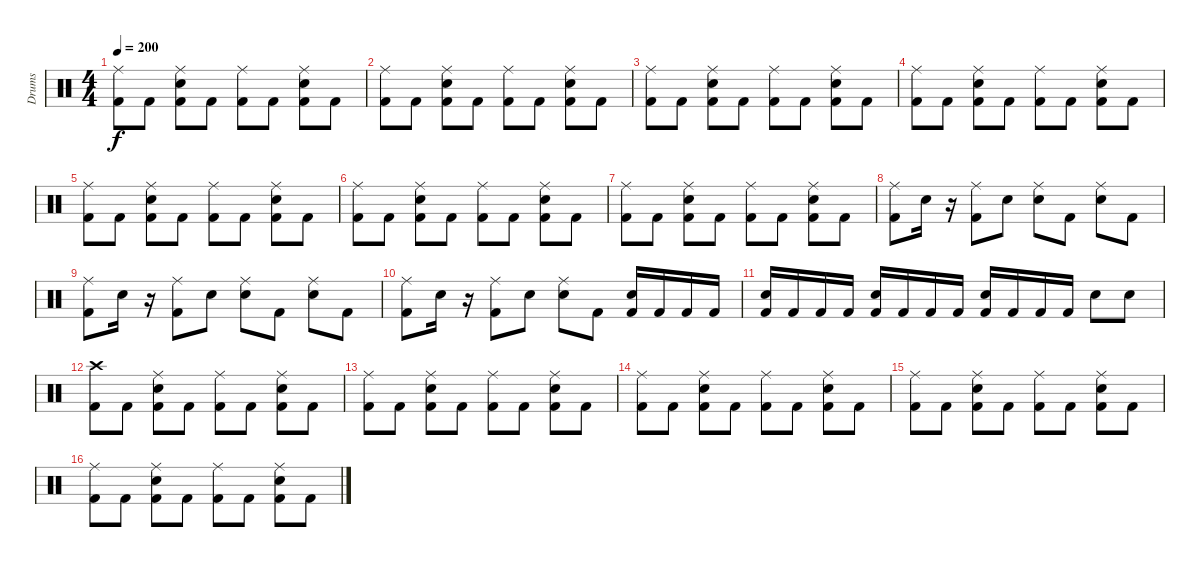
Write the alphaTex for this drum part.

\track ("Drums" "Drums") {instrument percussion}
\staff {score}
\articulation defaults
\ts (4 4)
\tempo 200
\clef neutral
\ks c
("Ride (middle)" "Kick (hit) 2").8{dy f} "Kick (hit) 2".8 ("Ride (middle)" "Snare (hit) 2" "Kick (hit) 2").8 "Kick (hit) 2".8 ("Ride (middle)" "Kick (hit) 2").8 "Kick (hit) 2".8 ("Ride (middle)" "Snare (hit) 2" "Kick (hit) 2").8 "Kick (hit) 2".8 |
("Ride (middle)" "Kick (hit) 2").8 "Kick (hit) 2".8 ("Ride (middle)" "Snare (hit) 2" "Kick (hit) 2").8 "Kick (hit) 2".8 ("Ride (middle)" "Kick (hit) 2").8 "Kick (hit) 2".8 ("Ride (middle)" "Snare (hit) 2" "Kick (hit) 2").8 "Kick (hit) 2".8 |
("Ride (middle)" "Kick (hit) 2").8 "Kick (hit) 2".8 ("Ride (middle)" "Snare (hit) 2" "Kick (hit) 2").8 "Kick (hit) 2".8 ("Ride (middle)" "Kick (hit) 2").8 "Kick (hit) 2".8 ("Ride (middle)" "Snare (hit) 2" "Kick (hit) 2").8 "Kick (hit) 2".8 |
("Ride (middle)" "Kick (hit) 2").8 "Kick (hit) 2".8 ("Ride (middle)" "Snare (hit) 2" "Kick (hit) 2").8 "Kick (hit) 2".8 ("Ride (middle)" "Kick (hit) 2").8 "Kick (hit) 2".8 ("Ride (middle)" "Snare (hit) 2" "Kick (hit) 2").8 "Kick (hit) 2".8 |
("Ride (middle)" "Kick (hit) 2").8 "Kick (hit) 2".8 ("Ride (middle)" "Snare (hit) 2" "Kick (hit) 2").8 "Kick (hit) 2".8 ("Ride (middle)" "Kick (hit) 2").8 "Kick (hit) 2".8 ("Ride (middle)" "Snare (hit) 2" "Kick (hit) 2").8 "Kick (hit) 2".8 |
("Ride (middle)" "Kick (hit) 2").8 "Kick (hit) 2".8 ("Ride (middle)" "Snare (hit) 2" "Kick (hit) 2").8 "Kick (hit) 2".8 ("Ride (middle)" "Kick (hit) 2").8 "Kick (hit) 2".8 ("Ride (middle)" "Snare (hit) 2" "Kick (hit) 2").8 "Kick (hit) 2".8 |
("Ride (middle)" "Kick (hit) 2").8 "Kick (hit) 2".8 ("Ride (middle)" "Snare (hit) 2" "Kick (hit) 2").8 "Kick (hit) 2".8 ("Ride (middle)" "Kick (hit) 2").8 "Kick (hit) 2".8 ("Ride (middle)" "Snare (hit) 2" "Kick (hit) 2").8 "Kick (hit) 2".8 |
("Ride (middle)" "Kick (hit) 2").8 "Snare (hit) 2".16 r.16 ("Ride (middle)" "Kick (hit) 2").8 "Snare (hit) 2".8 ("Ride (middle)" "Snare (hit) 2").8 "Kick (hit) 2".8 ("Ride (middle)" "Snare (hit) 2").8 "Kick (hit) 2".8 |
("Ride (middle)" "Kick (hit) 2").8 "Snare (hit) 2".16 r.16 ("Ride (middle)" "Kick (hit) 2").8 "Snare (hit) 2".8 ("Ride (middle)" "Snare (hit) 2").8 "Kick (hit) 2".8 ("Ride (middle)" "Snare (hit) 2").8 "Kick (hit) 2".8 |
("Ride (middle)" "Kick (hit) 2").8 "Snare (hit) 2".16 r.16 ("Ride (middle)" "Kick (hit) 2").8 "Snare (hit) 2".8 ("Ride (middle)" "Snare (hit) 2").8 "Kick (hit) 2".8 ("Snare (hit) 2" "Kick (hit) 2").16 "Kick (hit) 2".16 "Kick (hit) 2".16 "Kick (hit) 2".16 |
("Snare (hit) 2" "Kick (hit) 2").16 "Kick (hit) 2".16 "Kick (hit) 2".16 "Kick (hit) 2".16 ("Snare (hit) 2" "Kick (hit) 2").16 "Kick (hit) 2".16 "Kick (hit) 2".16 "Kick (hit) 2".16 ("Snare (hit) 2" "Kick (hit) 2").16 "Kick (hit) 2".16 "Kick (hit) 2".16 "Kick (hit) 2".16 "Snare (hit) 2".8 "Snare (hit) 2".8 |
("Crash high (hit)" "Kick (hit) 2").8 "Kick (hit) 2".8 ("Ride (middle)" "Snare (hit) 2" "Kick (hit) 2").8 "Kick (hit) 2".8 ("Ride (middle)" "Kick (hit) 2").8 "Kick (hit) 2".8 ("Ride (middle)" "Snare (hit) 2" "Kick (hit) 2").8 "Kick (hit) 2".8 |
("Ride (middle)" "Kick (hit) 2").8 "Kick (hit) 2".8 ("Ride (middle)" "Snare (hit) 2" "Kick (hit) 2").8 "Kick (hit) 2".8 ("Ride (middle)" "Kick (hit) 2").8 "Kick (hit) 2".8 ("Ride (middle)" "Snare (hit) 2" "Kick (hit) 2").8 "Kick (hit) 2".8 |
("Ride (middle)" "Kick (hit) 2").8 "Kick (hit) 2".8 ("Ride (middle)" "Snare (hit) 2" "Kick (hit) 2").8 "Kick (hit) 2".8 ("Ride (middle)" "Kick (hit) 2").8 "Kick (hit) 2".8 ("Ride (middle)" "Snare (hit) 2" "Kick (hit) 2").8 "Kick (hit) 2".8 |
("Ride (middle)" "Kick (hit) 2").8 "Kick (hit) 2".8 ("Ride (middle)" "Snare (hit) 2" "Kick (hit) 2").8 "Kick (hit) 2".8 ("Ride (middle)" "Kick (hit) 2").8 "Kick (hit) 2".8 ("Ride (middle)" "Snare (hit) 2" "Kick (hit) 2").8 "Kick (hit) 2".8 |
("Ride (middle)" "Kick (hit) 2").8 "Kick (hit) 2".8 ("Ride (middle)" "Snare (hit) 2" "Kick (hit) 2").8 "Kick (hit) 2".8 ("Ride (middle)" "Kick (hit) 2").8 "Kick (hit) 2".8 ("Ride (middle)" "Snare (hit) 2" "Kick (hit) 2").8 "Kick (hit) 2".8
